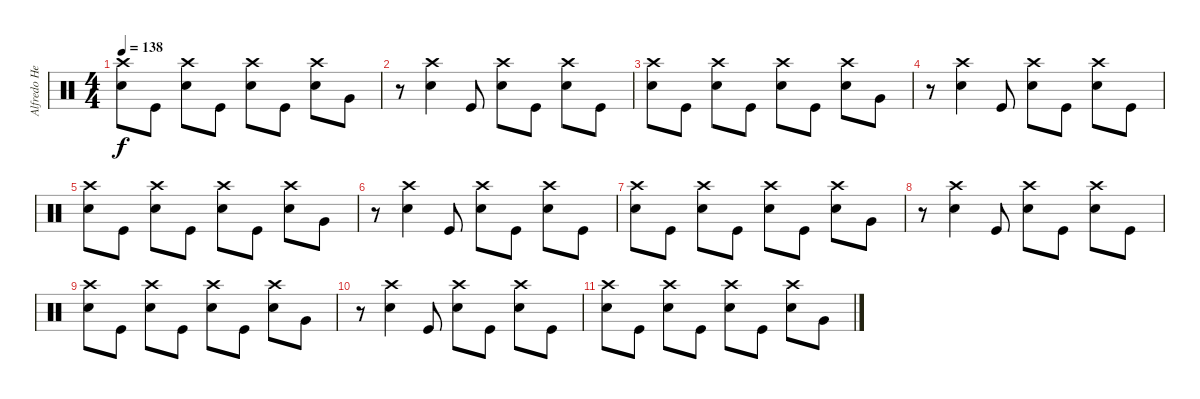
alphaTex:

\track ("Alfredo Hernandez" "Alfredo He") {instrument percussion}
\staff {score}
\articulation defaults
\ts (4 4)
\tempo 138
\clef neutral
\ks c
("Snare (hit) 2" "Crash high (hit)").8{dy f} "Kick (hit)".8 ("Snare (hit) 2" "Crash high (hit)").8 "Kick (hit)".8 ("Snare (hit) 2" "Crash high (hit)").8 "Kick (hit)".8 ("Snare (hit) 2" "Crash high (hit)").8 "Very Low Tom (hit)".8 |
r.8 ("Snare (hit) 2" "Crash high (hit)").4 "Kick (hit)".8 ("Snare (hit) 2" "Crash high (hit)").8 "Kick (hit)".8 ("Snare (hit) 2" "Crash high (hit)").8 "Kick (hit)".8 |
("Snare (hit) 2" "Crash high (hit)").8 "Kick (hit)".8 ("Snare (hit) 2" "Crash high (hit)").8 "Kick (hit)".8 ("Snare (hit) 2" "Crash high (hit)").8 "Kick (hit)".8 ("Snare (hit) 2" "Crash high (hit)").8 "Very Low Tom (hit)".8 |
r.8 ("Snare (hit) 2" "Crash high (hit)").4 "Kick (hit)".8 ("Snare (hit) 2" "Crash high (hit)").8 "Kick (hit)".8 ("Snare (hit) 2" "Crash high (hit)").8 "Kick (hit)".8 |
("Snare (hit) 2" "Crash high (hit)").8 "Kick (hit)".8 ("Snare (hit) 2" "Crash high (hit)").8 "Kick (hit)".8 ("Snare (hit) 2" "Crash high (hit)").8 "Kick (hit)".8 ("Snare (hit) 2" "Crash high (hit)").8 "Very Low Tom (hit)".8 |
r.8 ("Snare (hit) 2" "Crash high (hit)").4 "Kick (hit)".8 ("Snare (hit) 2" "Crash high (hit)").8 "Kick (hit)".8 ("Snare (hit) 2" "Crash high (hit)").8 "Kick (hit)".8 |
("Snare (hit) 2" "Crash high (hit)").8 "Kick (hit)".8 ("Snare (hit) 2" "Crash high (hit)").8 "Kick (hit)".8 ("Snare (hit) 2" "Crash high (hit)").8 "Kick (hit)".8 ("Snare (hit) 2" "Crash high (hit)").8 "Very Low Tom (hit)".8 |
r.8 ("Snare (hit) 2" "Crash high (hit)").4 "Kick (hit)".8 ("Snare (hit) 2" "Crash high (hit)").8 "Kick (hit)".8 ("Snare (hit) 2" "Crash high (hit)").8 "Kick (hit)".8 |
("Snare (hit) 2" "Crash high (hit)").8 "Kick (hit)".8 ("Snare (hit) 2" "Crash high (hit)").8 "Kick (hit)".8 ("Snare (hit) 2" "Crash high (hit)").8 "Kick (hit)".8 ("Snare (hit) 2" "Crash high (hit)").8 "Very Low Tom (hit)".8 |
r.8 ("Snare (hit) 2" "Crash high (hit)").4 "Kick (hit)".8 ("Snare (hit) 2" "Crash high (hit)").8 "Kick (hit)".8 ("Snare (hit) 2" "Crash high (hit)").8 "Kick (hit)".8 |
("Snare (hit) 2" "Crash high (hit)").8 "Kick (hit)".8 ("Snare (hit) 2" "Crash high (hit)").8 "Kick (hit)".8 ("Snare (hit) 2" "Crash high (hit)").8 "Kick (hit)".8 ("Snare (hit) 2" "Crash high (hit)").8 "Very Low Tom (hit)".8
